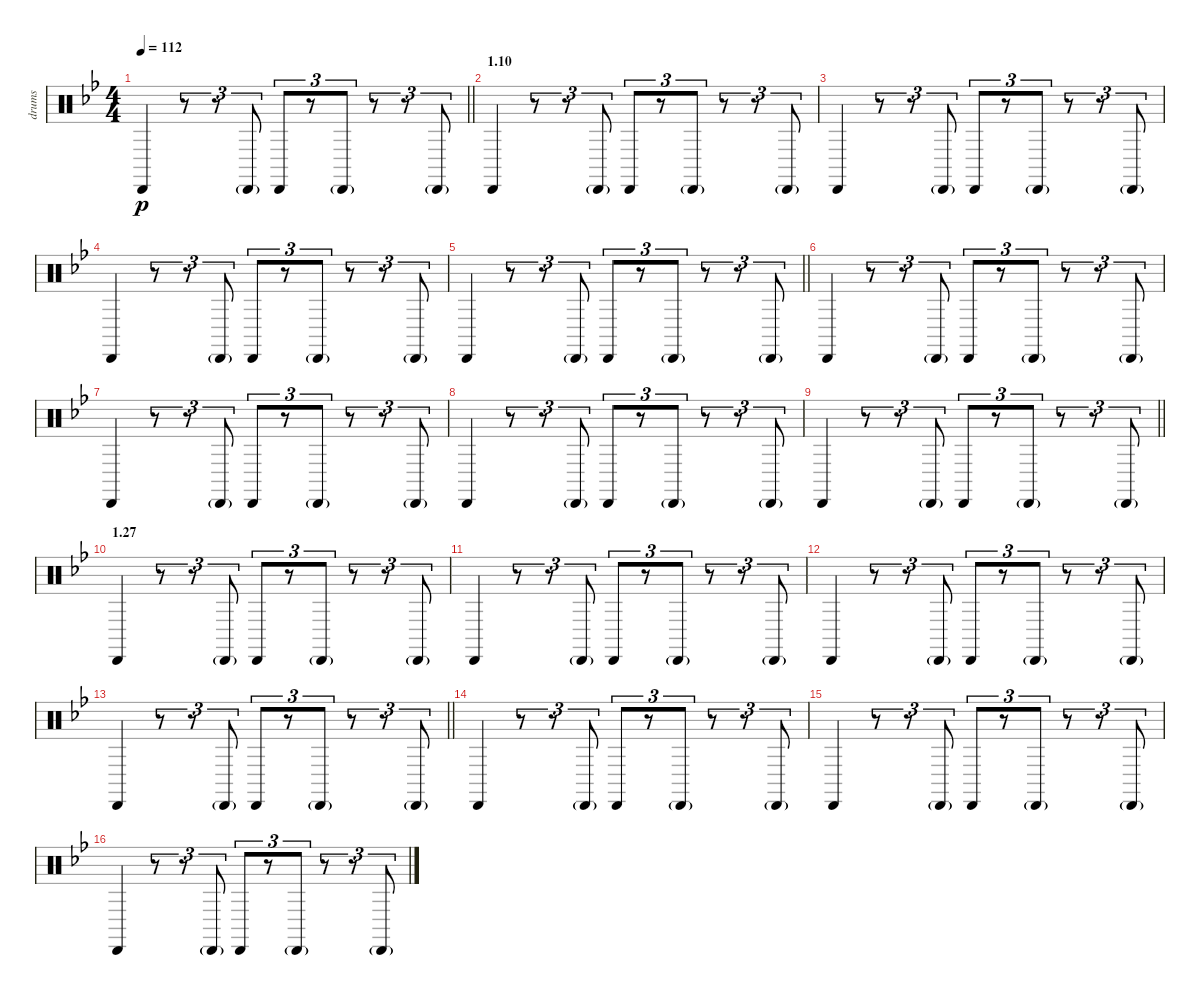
\track ("drums" "drums") {instrument percussion}
\staff {score}
\articulation defaults
\ts (4 4)
\tempo 112
\clef neutral
\barLineRight lightlight
\ks bb "Cabasa (hit)".4{dy p}
r.8{tu (3 2)} r.8{tu (3 2)} "Cabasa (hit)"{g}.8{tu (3 2)} "Cabasa (hit)".8{tu (3 2)} r.8{tu (3 2)} "Cabasa (hit)"{g}.8{tu (3 2)} r.8{tu (3 2)} r.8{tu (3 2)} "Cabasa (hit)"{g}.8{tu (3 2)} |
\section ("" "1.10")
"Cabasa (hit)".4 r.8{tu (3 2)} r.8{tu (3 2)} "Cabasa (hit)"{g}.8{tu (3 2)} "Cabasa (hit)".8{tu (3 2)} r.8{tu (3 2)} "Cabasa (hit)"{g}.8{tu (3 2)} r.8{tu (3 2)} r.8{tu (3 2)} "Cabasa (hit)"{g}.8{tu (3 2)} |
"Cabasa (hit)".4 r.8{tu (3 2)} r.8{tu (3 2)} "Cabasa (hit)"{g}.8{tu (3 2)} "Cabasa (hit)".8{tu (3 2)} r.8{tu (3 2)} "Cabasa (hit)"{g}.8{tu (3 2)} r.8{tu (3 2)} r.8{tu (3 2)} "Cabasa (hit)"{g}.8{tu (3 2)} |
"Cabasa (hit)".4 r.8{tu (3 2)} r.8{tu (3 2)} "Cabasa (hit)"{g}.8{tu (3 2)} "Cabasa (hit)".8{tu (3 2)} r.8{tu (3 2)} "Cabasa (hit)"{g}.8{tu (3 2)} r.8{tu (3 2)} r.8{tu (3 2)} "Cabasa (hit)"{g}.8{tu (3 2)} |
\barLineRight lightlight "Cabasa (hit)".4
r.8{tu (3 2)} r.8{tu (3 2)} "Cabasa (hit)"{g}.8{tu (3 2)} "Cabasa (hit)".8{tu (3 2)} r.8{tu (3 2)} "Cabasa (hit)"{g}.8{tu (3 2)} r.8{tu (3 2)} r.8{tu (3 2)} "Cabasa (hit)"{g}.8{tu (3 2)} |
"Cabasa (hit)".4 r.8{tu (3 2)} r.8{tu (3 2)} "Cabasa (hit)"{g}.8{tu (3 2)} "Cabasa (hit)".8{tu (3 2)} r.8{tu (3 2)} "Cabasa (hit)"{g}.8{tu (3 2)} r.8{tu (3 2)} r.8{tu (3 2)} "Cabasa (hit)"{g}.8{tu (3 2)} |
"Cabasa (hit)".4 r.8{tu (3 2)} r.8{tu (3 2)} "Cabasa (hit)"{g}.8{tu (3 2)} "Cabasa (hit)".8{tu (3 2)} r.8{tu (3 2)} "Cabasa (hit)"{g}.8{tu (3 2)} r.8{tu (3 2)} r.8{tu (3 2)} "Cabasa (hit)"{g}.8{tu (3 2)} |
"Cabasa (hit)".4 r.8{tu (3 2)} r.8{tu (3 2)} "Cabasa (hit)"{g}.8{tu (3 2)} "Cabasa (hit)".8{tu (3 2)} r.8{tu (3 2)} "Cabasa (hit)"{g}.8{tu (3 2)} r.8{tu (3 2)} r.8{tu (3 2)} "Cabasa (hit)"{g}.8{tu (3 2)} |
\barLineRight lightlight "Cabasa (hit)".4
r.8{tu (3 2)} r.8{tu (3 2)} "Cabasa (hit)"{g}.8{tu (3 2)} "Cabasa (hit)".8{tu (3 2)} r.8{tu (3 2)} "Cabasa (hit)"{g}.8{tu (3 2)} r.8{tu (3 2)} r.8{tu (3 2)} "Cabasa (hit)"{g}.8{tu (3 2)} |
\section ("" "1.27")
"Cabasa (hit)".4 r.8{tu (3 2)} r.8{tu (3 2)} "Cabasa (hit)"{g}.8{tu (3 2)} "Cabasa (hit)".8{tu (3 2)} r.8{tu (3 2)} "Cabasa (hit)"{g}.8{tu (3 2)} r.8{tu (3 2)} r.8{tu (3 2)} "Cabasa (hit)"{g}.8{tu (3 2)} |
"Cabasa (hit)".4 r.8{tu (3 2)} r.8{tu (3 2)} "Cabasa (hit)"{g}.8{tu (3 2)} "Cabasa (hit)".8{tu (3 2)} r.8{tu (3 2)} "Cabasa (hit)"{g}.8{tu (3 2)} r.8{tu (3 2)} r.8{tu (3 2)} "Cabasa (hit)"{g}.8{tu (3 2)} |
"Cabasa (hit)".4 r.8{tu (3 2)} r.8{tu (3 2)} "Cabasa (hit)"{g}.8{tu (3 2)} "Cabasa (hit)".8{tu (3 2)} r.8{tu (3 2)} "Cabasa (hit)"{g}.8{tu (3 2)} r.8{tu (3 2)} r.8{tu (3 2)} "Cabasa (hit)"{g}.8{tu (3 2)} |
\barLineRight lightlight "Cabasa (hit)".4
r.8{tu (3 2)} r.8{tu (3 2)} "Cabasa (hit)"{g}.8{tu (3 2)} "Cabasa (hit)".8{tu (3 2)} r.8{tu (3 2)} "Cabasa (hit)"{g}.8{tu (3 2)} r.8{tu (3 2)} r.8{tu (3 2)} "Cabasa (hit)"{g}.8{tu (3 2)} |
"Cabasa (hit)".4 r.8{tu (3 2)} r.8{tu (3 2)} "Cabasa (hit)"{g}.8{tu (3 2)} "Cabasa (hit)".8{tu (3 2)} r.8{tu (3 2)} "Cabasa (hit)"{g}.8{tu (3 2)} r.8{tu (3 2)} r.8{tu (3 2)} "Cabasa (hit)"{g}.8{tu (3 2)} |
"Cabasa (hit)".4 r.8{tu (3 2)} r.8{tu (3 2)} "Cabasa (hit)"{g}.8{tu (3 2)} "Cabasa (hit)".8{tu (3 2)} r.8{tu (3 2)} "Cabasa (hit)"{g}.8{tu (3 2)} r.8{tu (3 2)} r.8{tu (3 2)} "Cabasa (hit)"{g}.8{tu (3 2)} |
"Cabasa (hit)".4 r.8{tu (3 2)} r.8{tu (3 2)} "Cabasa (hit)"{g}.8{tu (3 2)} "Cabasa (hit)".8{tu (3 2)} r.8{tu (3 2)} "Cabasa (hit)"{g}.8{tu (3 2)} r.8{tu (3 2)} r.8{tu (3 2)} "Cabasa (hit)"{g}.8{tu (3 2)}
